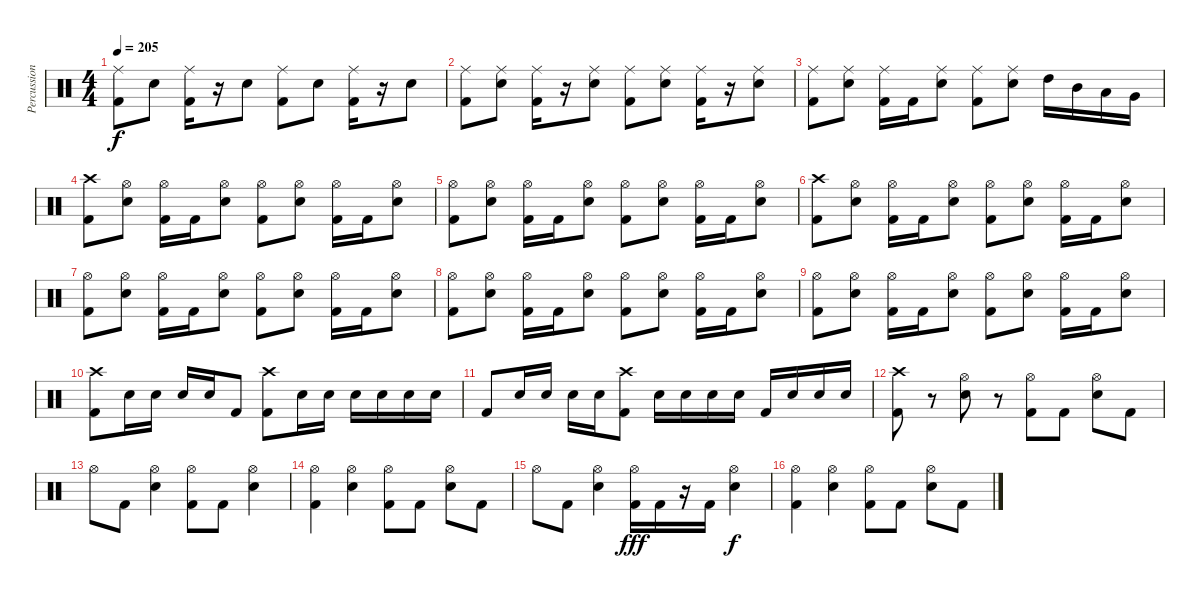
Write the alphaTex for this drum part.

\track ("Percussions" "Percussion") {instrument percussion}
\staff {score}
\articulation defaults
\ts (4 4)
\tempo 205
\clef neutral
\ks c
("Ride (middle)" "Kick (hit) 2").8{dy f} "Snare (hit) 2".8 ("Ride (middle)" "Kick (hit) 2").16 r.16 "Snare (hit) 2".8 ("Ride (middle)" "Kick (hit) 2").8 "Snare (hit) 2".8 ("Ride (middle)" "Kick (hit) 2").16 r.16 "Snare (hit) 2".8 |
("Ride (middle)" "Kick (hit) 2").8 ("Ride (middle)" "Snare (hit) 2").8 ("Ride (middle)" "Kick (hit) 2").16 r.16 ("Ride (middle)" "Snare (hit) 2").8 ("Ride (middle)" "Kick (hit) 2").8 ("Ride (middle)" "Snare (hit) 2").8 ("Ride (middle)" "Kick (hit) 2").16 r.16 ("Ride (middle)" "Snare (hit) 2").8 |
("Ride (middle)" "Kick (hit) 2").8 ("Ride (middle)" "Snare (hit) 2").8 ("Ride (middle)" "Kick (hit) 2").16 "Kick (hit) 2".16 ("Ride (middle)" "Snare (hit) 2").8 ("Ride (middle)" "Kick (hit) 2").8 ("Ride (middle)" "Snare (hit) 2").8 "High Tom (hit)".16 "Mid Tom (hit)".16 "Low Tom (hit)".16 "Very Low Tom (hit)".16 |
("Crash high (hit)" "Kick (hit) 2").8 ("Hi-Hat (open)" "Snare (hit) 2").8 ("Hi-Hat (open)" "Kick (hit) 2").16 "Kick (hit) 2".16 ("Hi-Hat (open)" "Snare (hit) 2").8 ("Hi-Hat (open)" "Kick (hit) 2").8 ("Hi-Hat (open)" "Snare (hit) 2").8 ("Hi-Hat (open)" "Kick (hit) 2").16 "Kick (hit) 2".16 ("Hi-Hat (open)" "Snare (hit) 2").8 |
("Hi-Hat (open)" "Kick (hit) 2").8 ("Hi-Hat (open)" "Snare (hit) 2").8 ("Hi-Hat (open)" "Kick (hit) 2").16 "Kick (hit) 2".16 ("Hi-Hat (open)" "Snare (hit) 2").8 ("Hi-Hat (open)" "Kick (hit) 2").8 ("Hi-Hat (open)" "Snare (hit) 2").8 ("Hi-Hat (open)" "Kick (hit) 2").16 "Kick (hit) 2".16 ("Hi-Hat (open)" "Snare (hit) 2").8 |
("Crash high (hit)" "Kick (hit) 2").8 ("Hi-Hat (open)" "Snare (hit) 2").8 ("Hi-Hat (open)" "Kick (hit) 2").16 "Kick (hit) 2".16 ("Hi-Hat (open)" "Snare (hit) 2").8 ("Hi-Hat (open)" "Kick (hit) 2").8 ("Hi-Hat (open)" "Snare (hit) 2").8 ("Hi-Hat (open)" "Kick (hit) 2").16 "Kick (hit) 2".16 ("Hi-Hat (open)" "Snare (hit) 2").8 |
("Hi-Hat (open)" "Kick (hit) 2").8 ("Hi-Hat (open)" "Snare (hit) 2").8 ("Hi-Hat (open)" "Kick (hit) 2").16 "Kick (hit) 2".16 ("Hi-Hat (open)" "Snare (hit) 2").8 ("Hi-Hat (open)" "Kick (hit) 2").8 ("Hi-Hat (open)" "Snare (hit) 2").8 ("Hi-Hat (open)" "Kick (hit) 2").16 "Kick (hit) 2".16 ("Hi-Hat (open)" "Snare (hit) 2").8 |
("Hi-Hat (open)" "Kick (hit) 2").8 ("Hi-Hat (open)" "Snare (hit) 2").8 ("Hi-Hat (open)" "Kick (hit) 2").16 "Kick (hit) 2".16 ("Hi-Hat (open)" "Snare (hit) 2").8 ("Hi-Hat (open)" "Kick (hit) 2").8 ("Hi-Hat (open)" "Snare (hit) 2").8 ("Hi-Hat (open)" "Kick (hit) 2").16 "Kick (hit) 2".16 ("Hi-Hat (open)" "Snare (hit) 2").8 |
("Hi-Hat (open)" "Kick (hit) 2").8 ("Hi-Hat (open)" "Snare (hit) 2").8 ("Hi-Hat (open)" "Kick (hit) 2").16 "Kick (hit) 2".16 ("Hi-Hat (open)" "Snare (hit) 2").8 ("Hi-Hat (open)" "Kick (hit) 2").8 ("Hi-Hat (open)" "Snare (hit) 2").8 ("Hi-Hat (open)" "Kick (hit) 2").16 "Kick (hit) 2".16 ("Hi-Hat (open)" "Snare (hit) 2").8 |
("Crash high (hit)" "Kick (hit) 2").8 "Snare (hit) 2".16 "Snare (hit) 2".16 "Snare (hit) 2".16 "Snare (hit) 2".16 "Kick (hit) 2".8 ("Crash high (hit)" "Kick (hit) 2").8 "Snare (hit) 2".16 "Snare (hit) 2".16 "Snare (hit) 2".16 "Snare (hit) 2".16 "Snare (hit) 2".16 "Snare (hit) 2".16 |
"Kick (hit) 2".8 "Snare (hit) 2".16 "Snare (hit) 2".16 "Snare (hit) 2".16 "Snare (hit) 2".16 ("Crash high (hit)" "Kick (hit) 2").8 "Snare (hit) 2".16 "Snare (hit) 2".16 "Snare (hit) 2".16 "Snare (hit) 2".16 "Kick (hit) 2".16 "Snare (hit) 2".16 "Snare (hit) 2".16 "Snare (hit) 2".16 |
("Crash high (hit)" "Kick (hit) 2").8 r.8 ("Hi-Hat (open)" "Snare (hit) 2").8 r.8 ("Hi-Hat (open)" "Kick (hit) 2").8 "Kick (hit) 2".8 ("Hi-Hat (open)" "Snare (hit) 2").8 "Kick (hit) 2".8 |
"Hi-Hat (open)".8 "Kick (hit) 2".8 ("Hi-Hat (open)" "Snare (hit) 2").4 ("Hi-Hat (open)" "Kick (hit) 2").8 "Kick (hit) 2".8 ("Hi-Hat (open)" "Snare (hit) 2").4 |
("Hi-Hat (open)" "Kick (hit) 2").4 ("Hi-Hat (open)" "Snare (hit) 2").4 ("Hi-Hat (open)" "Kick (hit) 2").8 "Kick (hit) 2".8 ("Hi-Hat (open)" "Snare (hit) 2").8 "Kick (hit) 2".8 |
"Hi-Hat (open)".8 "Kick (hit) 2".8 ("Hi-Hat (open)" "Snare (hit) 2").4 ("Hi-Hat (open)" "Kick (hit) 2").16{dy fff} "Kick (hit) 2".16 r.16 "Kick (hit) 2".16 ("Hi-Hat (open)" "Snare (hit) 2").4{dy f} |
("Hi-Hat (open)" "Kick (hit) 2").4 ("Hi-Hat (open)" "Snare (hit) 2").4 ("Hi-Hat (open)" "Kick (hit) 2").8 "Kick (hit) 2".8 ("Hi-Hat (open)" "Snare (hit) 2").8 "Kick (hit) 2".8
